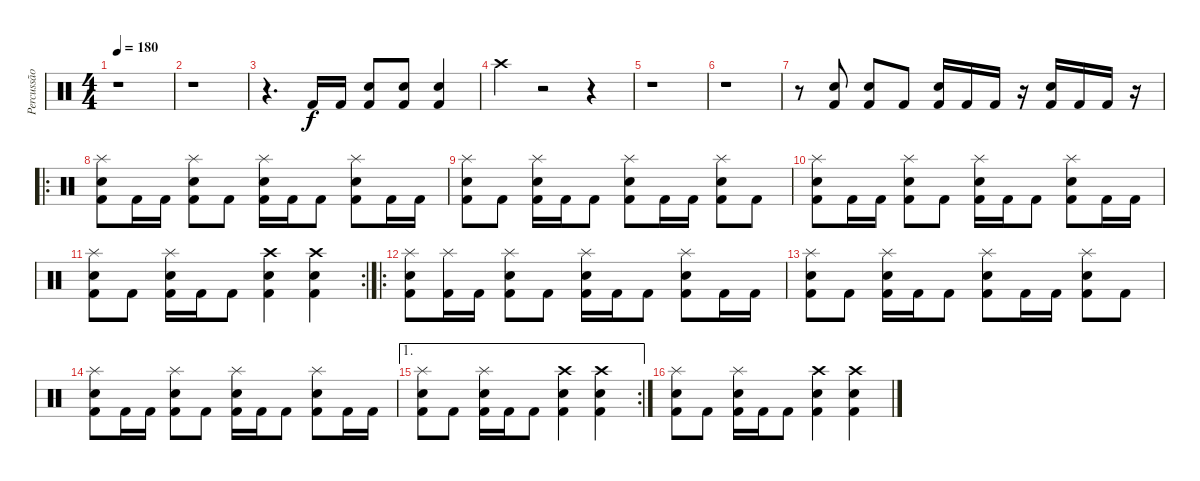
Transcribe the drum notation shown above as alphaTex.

\track ("Percussão" "Percussão") {instrument percussion}
\staff {score}
\articulation defaults
\ts (4 4)
\tempo 180
\clef neutral
\ks c
r.1{dy f} |
r.1 |
r.4{d} "Kick (hit) 2".16 "Kick (hit) 2".16 ("Kick (hit) 2" "Snare (hit) 2").8 ("Kick (hit) 2" "Snare (hit) 2").8 ("Kick (hit) 2" "Snare (hit) 2").4 |
"Crash high (hit)".4 r.2 r.4 |
r.1 |
r.1 |
r.8 ("Kick (hit) 2" "Snare (hit) 2").8 ("Kick (hit) 2" "Snare (hit) 2").8 "Kick (hit) 2".8 ("Kick (hit) 2" "Snare (hit) 2").16 "Kick (hit) 2".16 "Kick (hit) 2".16 r.16 ("Kick (hit) 2" "Snare (hit) 2").16 "Kick (hit) 2".16 "Kick (hit) 2".16 r.16 |
\ro
("Kick (hit) 2" "Snare (hit) 2" "Splash (hit)").8 "Kick (hit) 2".16 "Kick (hit) 2".16 ("Kick (hit) 2" "Snare (hit) 2" "Splash (hit)").8 "Kick (hit) 2".8 ("Kick (hit) 2" "Snare (hit) 2" "Splash (hit)").16 "Kick (hit) 2".16 "Kick (hit) 2".8 ("Kick (hit) 2" "Snare (hit) 2" "Splash (hit)").8 "Kick (hit) 2".16 "Kick (hit) 2".16 |
("Kick (hit) 2" "Snare (hit) 2" "Splash (hit)").8 "Kick (hit) 2".8 ("Kick (hit) 2" "Snare (hit) 2" "Splash (hit)").16 "Kick (hit) 2".16 "Kick (hit) 2".8 ("Kick (hit) 2" "Snare (hit) 2" "Splash (hit)").8 "Kick (hit) 2".16 "Kick (hit) 2".16 ("Kick (hit) 2" "Snare (hit) 2" "Splash (hit)").8 "Kick (hit) 2".8 |
("Kick (hit) 2" "Snare (hit) 2" "Splash (hit)").8 "Kick (hit) 2".16 "Kick (hit) 2".16 ("Kick (hit) 2" "Snare (hit) 2" "Splash (hit)").8 "Kick (hit) 2".8 ("Kick (hit) 2" "Snare (hit) 2" "Splash (hit)").16 "Kick (hit) 2".16 "Kick (hit) 2".8 ("Kick (hit) 2" "Snare (hit) 2" "Splash (hit)").8 "Kick (hit) 2".16 "Kick (hit) 2".16 |
\rc 2
("Kick (hit) 2" "Snare (hit) 2" "Splash (hit)").8 "Kick (hit) 2".8 ("Kick (hit) 2" "Snare (hit) 2" "Splash (hit)").16 "Kick (hit) 2".16 "Kick (hit) 2".8 ("Kick (hit) 2" "Snare (hit) 2" "Crash high (hit)").4 ("Kick (hit) 2" "Snare (hit) 2" "Crash high (hit)").4 |
\ro
("Kick (hit) 2" "Snare (hit) 2" "Splash (hit)").8 ("Kick (hit) 2" "Splash (hit)").16 "Kick (hit) 2".16 ("Kick (hit) 2" "Snare (hit) 2" "Splash (hit)").8 "Kick (hit) 2".8 ("Kick (hit) 2" "Snare (hit) 2" "Splash (hit)").16 "Kick (hit) 2".16 "Kick (hit) 2".8 ("Kick (hit) 2" "Snare (hit) 2" "Splash (hit)").8 "Kick (hit) 2".16 "Kick (hit) 2".16 |
("Kick (hit) 2" "Snare (hit) 2" "Splash (hit)").8 "Kick (hit) 2".8 ("Kick (hit) 2" "Snare (hit) 2" "Splash (hit)").16 "Kick (hit) 2".16 "Kick (hit) 2".8 ("Kick (hit) 2" "Snare (hit) 2" "Splash (hit)").8 "Kick (hit) 2".16 "Kick (hit) 2".16 ("Kick (hit) 2" "Snare (hit) 2" "Splash (hit)").8 "Kick (hit) 2".8 |
("Kick (hit) 2" "Snare (hit) 2" "Splash (hit)").8 "Kick (hit) 2".16 "Kick (hit) 2".16 ("Kick (hit) 2" "Snare (hit) 2" "Splash (hit)").8 "Kick (hit) 2".8 ("Kick (hit) 2" "Snare (hit) 2" "Splash (hit)").16 "Kick (hit) 2".16 "Kick (hit) 2".8 ("Kick (hit) 2" "Snare (hit) 2" "Splash (hit)").8 "Kick (hit) 2".16 "Kick (hit) 2".16 |
\ae 1
\rc 2
("Kick (hit) 2" "Snare (hit) 2" "Splash (hit)").8 "Kick (hit) 2".8 ("Kick (hit) 2" "Snare (hit) 2" "Splash (hit)").16 "Kick (hit) 2".16 "Kick (hit) 2".8 ("Kick (hit) 2" "Snare (hit) 2" "Crash high (hit)").4 ("Kick (hit) 2" "Snare (hit) 2" "Crash high (hit)").4 |
("Kick (hit) 2" "Snare (hit) 2" "Splash (hit)").8 "Kick (hit) 2".8 ("Kick (hit) 2" "Snare (hit) 2" "Splash (hit)").16 "Kick (hit) 2".16 "Kick (hit) 2".8 ("Kick (hit) 2" "Snare (hit) 2" "Crash high (hit)").4 ("Kick (hit) 2" "Snare (hit) 2" "Crash high (hit)").4
